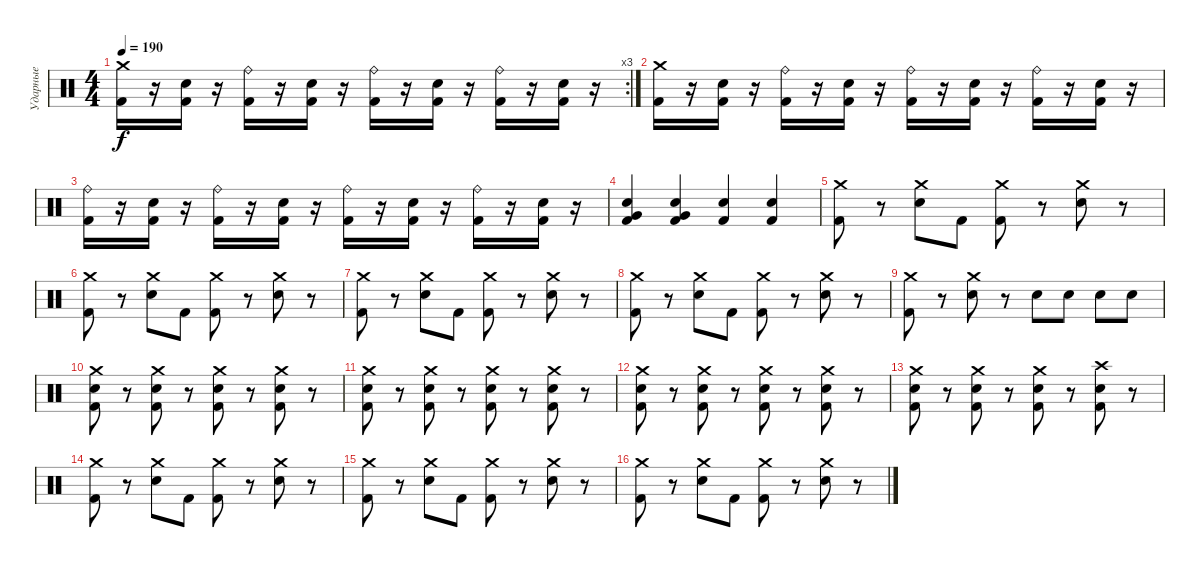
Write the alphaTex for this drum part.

\track ("Ударные" "Ударные") {instrument percussion}
\staff {score}
\articulation defaults
\rc 3
\ts (4 4)
\tempo 190
\clef neutral
\ks c
("Crash medium (hit)" "Kick (hit) 2").16{dy f} r.16 ("Snare (hit) 2" "Kick (hit) 2").16 r.16 ("Ride (bell)" "Kick (hit) 2").16 r.16 ("Snare (hit) 2" "Kick (hit) 2").16 r.16 ("Ride (bell)" "Kick (hit) 2").16 r.16 ("Snare (hit) 2" "Kick (hit) 2").16 r.16 ("Ride (bell)" "Kick (hit) 2").16 r.16 ("Snare (hit) 2" "Kick (hit) 2").16 r.16 |
("Crash medium (hit)" "Kick (hit) 2").16 r.16 ("Snare (hit) 2" "Kick (hit) 2").16 r.16 ("Ride (bell)" "Kick (hit) 2").16 r.16 ("Snare (hit) 2" "Kick (hit) 2").16 r.16 ("Ride (bell)" "Kick (hit) 2").16 r.16 ("Snare (hit) 2" "Kick (hit) 2").16 r.16 ("Ride (bell)" "Kick (hit) 2").16 r.16 ("Snare (hit) 2" "Kick (hit) 2").16 r.16 |
("Ride (bell)" "Kick (hit) 2").16 r.16 ("Snare (hit) 2" "Kick (hit) 2").16 r.16 ("Ride (bell)" "Kick (hit) 2").16 r.16 ("Snare (hit) 2" "Kick (hit) 2").16 r.16 ("Ride (bell)" "Kick (hit) 2").16 r.16 ("Snare (hit) 2" "Kick (hit) 2").16 r.16 ("Ride (bell)" "Kick (hit) 2").16 r.16 ("Snare (hit) 2" "Kick (hit) 2").16 r.16 |
("Snare (hit) 2" "Very Low Tom (hit)" "Kick (hit) 2").4 ("Snare (hit) 2" "Very Low Tom (hit)" "Kick (hit) 2").4 ("Snare (hit) 2" "Kick (hit) 2").4 ("Snare (hit) 2" "Kick (hit) 2").4 |
("Crash medium (hit)" "Kick (hit) 2").8 r.8 ("Crash medium (hit)" "Snare (hit) 2").8 "Kick (hit) 2".8 ("Crash medium (hit)" "Kick (hit) 2").8 r.8 ("Crash medium (hit)" "Snare (hit) 2").8 r.8 |
("Crash medium (hit)" "Kick (hit) 2").8 r.8 ("Crash medium (hit)" "Snare (hit) 2").8 "Kick (hit) 2".8 ("Crash medium (hit)" "Kick (hit) 2").8 r.8 ("Crash medium (hit)" "Snare (hit) 2").8 r.8 |
("Crash medium (hit)" "Kick (hit) 2").8 r.8 ("Crash medium (hit)" "Snare (hit) 2").8 "Kick (hit) 2".8 ("Crash medium (hit)" "Kick (hit) 2").8 r.8 ("Crash medium (hit)" "Snare (hit) 2").8 r.8 |
("Crash medium (hit)" "Kick (hit) 2").8 r.8 ("Crash medium (hit)" "Snare (hit) 2").8 "Kick (hit) 2".8 ("Crash medium (hit)" "Kick (hit) 2").8 r.8 ("Crash medium (hit)" "Snare (hit) 2").8 r.8 |
("Crash medium (hit)" "Kick (hit) 2").8 r.8 ("Crash medium (hit)" "Snare (hit) 2").8 r.8 "Snare (hit) 2".8 "Snare (hit) 2".8 "Snare (hit) 2".8 "Snare (hit) 2".8 |
("Crash medium (hit)" "Snare (hit) 2" "Kick (hit) 2").8 r.8 ("Crash medium (hit)" "Snare (hit) 2" "Kick (hit) 2").8 r.8 ("Crash medium (hit)" "Snare (hit) 2" "Kick (hit) 2").8 r.8 ("Crash medium (hit)" "Snare (hit) 2" "Kick (hit) 2").8 r.8 |
("Crash medium (hit)" "Snare (hit) 2" "Kick (hit) 2").8 r.8 ("Crash medium (hit)" "Snare (hit) 2" "Kick (hit) 2").8 r.8 ("Crash medium (hit)" "Snare (hit) 2" "Kick (hit) 2").8 r.8 ("Crash medium (hit)" "Snare (hit) 2" "Kick (hit) 2").8 r.8 |
("Crash medium (hit)" "Snare (hit) 2" "Kick (hit) 2").8 r.8 ("Crash medium (hit)" "Snare (hit) 2" "Kick (hit) 2").8 r.8 ("Crash medium (hit)" "Snare (hit) 2" "Kick (hit) 2").8 r.8 ("Crash medium (hit)" "Snare (hit) 2" "Kick (hit) 2").8 r.8 |
("Crash medium (hit)" "Snare (hit) 2" "Kick (hit) 2").8 r.8 ("Crash medium (hit)" "Snare (hit) 2" "Kick (hit) 2").8 r.8 ("Crash medium (hit)" "Snare (hit) 2" "Kick (hit) 2").8 r.8 ("Crash high (hit)" "Snare (hit) 2" "Kick (hit) 2").8 r.8 |
("Crash medium (hit)" "Kick (hit) 2").8 r.8 ("Crash medium (hit)" "Snare (hit) 2").8 "Kick (hit) 2".8 ("Crash medium (hit)" "Kick (hit) 2").8 r.8 ("Crash medium (hit)" "Snare (hit) 2").8 r.8 |
("Crash medium (hit)" "Kick (hit) 2").8 r.8 ("Crash medium (hit)" "Snare (hit) 2").8 "Kick (hit) 2".8 ("Crash medium (hit)" "Kick (hit) 2").8 r.8 ("Crash medium (hit)" "Snare (hit) 2").8 r.8 |
("Crash medium (hit)" "Kick (hit) 2").8 r.8 ("Crash medium (hit)" "Snare (hit) 2").8 "Kick (hit) 2".8 ("Crash medium (hit)" "Kick (hit) 2").8 r.8 ("Crash medium (hit)" "Snare (hit) 2").8 r.8
